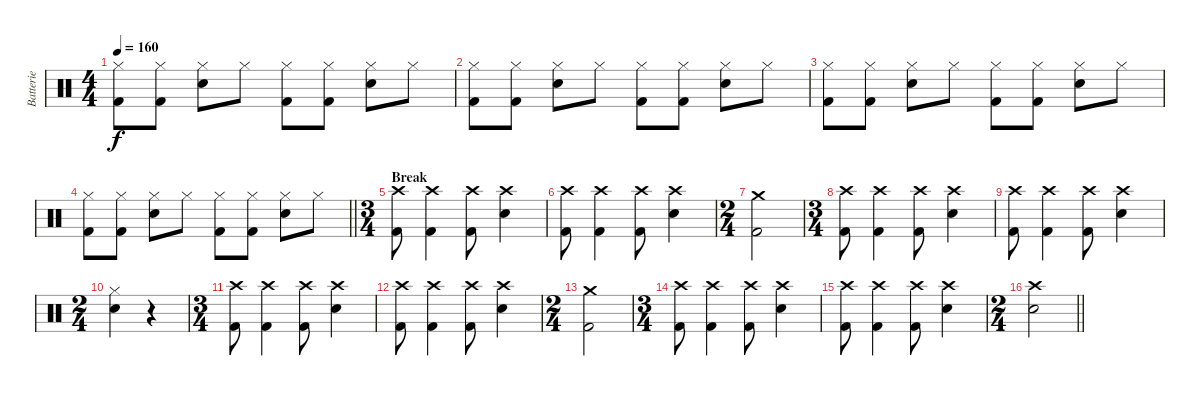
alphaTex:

\track ("Batterie" "Batterie") {instrument percussion}
\staff {score}
\articulation defaults
\ts (4 4)
\tempo 160
\clef neutral
\ks c
("Hi-Hat (closed)" "Kick (hit) 2").8{dy f} ("Hi-Hat (closed)" "Kick (hit) 2").8 ("Hi-Hat (closed)" "Electric Snare (hit)").8 "Hi-Hat (closed)".8 ("Hi-Hat (closed)" "Kick (hit) 2").8 ("Hi-Hat (closed)" "Kick (hit) 2").8 ("Hi-Hat (closed)" "Electric Snare (hit)").8 "Hi-Hat (closed)".8 |
("Hi-Hat (closed)" "Kick (hit) 2").8 ("Hi-Hat (closed)" "Kick (hit) 2").8 ("Hi-Hat (closed)" "Electric Snare (hit)").8 "Hi-Hat (closed)".8 ("Hi-Hat (closed)" "Kick (hit) 2").8 ("Hi-Hat (closed)" "Kick (hit) 2").8 ("Hi-Hat (closed)" "Electric Snare (hit)").8 "Hi-Hat (closed)".8 |
("Hi-Hat (closed)" "Kick (hit) 2").8 ("Hi-Hat (closed)" "Kick (hit) 2").8 ("Hi-Hat (closed)" "Electric Snare (hit)").8 "Hi-Hat (closed)".8 ("Hi-Hat (closed)" "Kick (hit) 2").8 ("Hi-Hat (closed)" "Kick (hit) 2").8 ("Hi-Hat (closed)" "Electric Snare (hit)").8 "Hi-Hat (closed)".8 |
\barLineRight lightlight
("Hi-Hat (closed)" "Kick (hit) 2").8 ("Hi-Hat (closed)" "Kick (hit) 2").8 ("Hi-Hat (closed)" "Electric Snare (hit)").8 "Hi-Hat (closed)".8 ("Hi-Hat (closed)" "Kick (hit) 2").8 ("Hi-Hat (closed)" "Kick (hit) 2").8 ("Hi-Hat (closed)" "Electric Snare (hit)").8 "Hi-Hat (closed)".8 |
\ts (3 4)
\section ("" "Break")
("Crash high (hit)" "Kick (hit) 2").8 ("Crash high (hit)" "Kick (hit) 2").4 ("Crash high (hit)" "Kick (hit) 2").8 ("Crash high (hit)" "Snare (hit) 2").4 |
("Crash high (hit)" "Kick (hit) 2").8 ("Crash high (hit)" "Kick (hit) 2").4 ("Crash high (hit)" "Kick (hit) 2").8 ("Crash high (hit)" "Snare (hit) 2").4 |
\ts (2 4)
("Crash medium (hit)" "Kick (hit) 2").2 |
\ts (3 4)
("Crash high (hit)" "Kick (hit) 2").8 ("Crash high (hit)" "Kick (hit) 2").4 ("Crash high (hit)" "Kick (hit) 2").8 ("Crash high (hit)" "Snare (hit) 2").4 |
("Crash high (hit)" "Kick (hit) 2").8 ("Crash high (hit)" "Kick (hit) 2").4 ("Crash high (hit)" "Kick (hit) 2").8 ("Crash high (hit)" "Snare (hit) 2").4 |
\ts (2 4)
("Hi-Hat (closed)" "Snare (hit) 2").4 r.4 |
\ts (3 4)
("Crash high (hit)" "Kick (hit) 2").8 ("Crash high (hit)" "Kick (hit) 2").4 ("Crash high (hit)" "Kick (hit) 2").8 ("Crash high (hit)" "Snare (hit) 2").4 |
("Crash high (hit)" "Kick (hit) 2").8 ("Crash high (hit)" "Kick (hit) 2").4 ("Crash high (hit)" "Kick (hit) 2").8 ("Crash high (hit)" "Snare (hit) 2").4 |
\ts (2 4)
("Crash medium (hit)" "Kick (hit) 2").2 |
\ts (3 4)
("Crash high (hit)" "Kick (hit) 2").8 ("Crash high (hit)" "Kick (hit) 2").4 ("Crash high (hit)" "Kick (hit) 2").8 ("Crash high (hit)" "Snare (hit) 2").4 |
("Crash high (hit)" "Kick (hit) 2").8 ("Crash high (hit)" "Kick (hit) 2").4 ("Crash high (hit)" "Kick (hit) 2").8 ("Crash high (hit)" "Snare (hit) 2").4 |
\ts (2 4)
\barLineRight lightlight
("Crash high (hit)" "Snare (hit) 2").2
